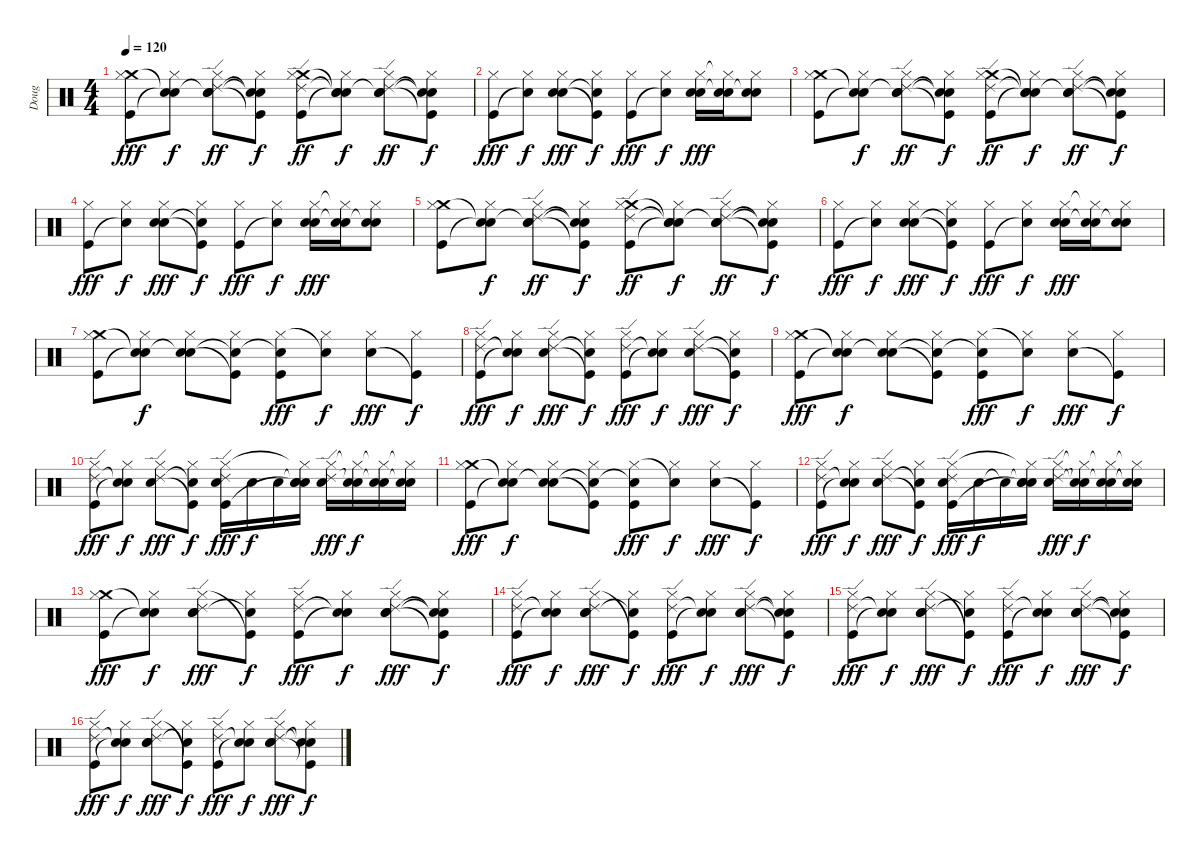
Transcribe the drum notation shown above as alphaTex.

\track ("Doug" "Doug") {instrument percussion}
\staff {score}
\articulation defaults
\ts (4 4)
\tempo 120
\clef neutral
\ks c
("Crash medium (hit)" "Hi-Hat (closed)" "Kick (hit)").8{dy fff} ("Snare (hit)"{t} "Hi-Hat (closed)" "Snare (hit)"{t}).8{dy f} ("Snare (hit)"{t} "Hi-Hat (closed)" "Snare (hit) 2" "Ride (edge) 2").8{dy ff} ("Snare (hit)"{t} "Hi-Hat (closed)" "Kick (hit)"{t} "Snare (hit)"{t}).8{dy f} ("Crash medium (hit)" "Hi-Hat (closed)" "Kick (hit)" "Ride (edge) 2").8{dy ff} ("Snare (hit)"{t} "Hi-Hat (closed)" "Snare (hit)"{t} "Snare (hit)"{t}).8{dy f} ("Snare (hit)"{t} "Hi-Hat (closed)" "Snare (hit) 2" "Ride (edge) 2").8{dy ff} ("Snare (hit)"{t} "Hi-Hat (closed)" "Kick (hit)"{t} "Snare (hit)"{t}).8{dy f} |
("Hi-Hat (closed)" "Kick (hit)").8{dy fff} ("Hi-Hat (closed)" "Snare (hit)"{t}).8{dy f} ("Hand Clap (hit)" "Hi-Hat (closed)" "Snare (hit) 2").8{dy fff} ("Snare (hit)"{t} "Hi-Hat (closed)" "Kick (hit)"{t}).8{dy f} ("Hi-Hat (closed)" "Kick (hit)").8{dy fff} ("Hi-Hat (closed)" "Snare (hit)"{t}).8{dy f} ("Hand Clap (hit)" "Hi-Hat (closed)" "Snare (hit) 2").16{dy fff} ("Snare (hit)"{t} "Hi-Hat (closed)"{t} "Snare (hit) 2").16 ("Snare (hit)"{t} "Hi-Hat (closed)" "Snare (hit) 2").8 |
("Crash medium (hit)" "Hi-Hat (closed)" "Kick (hit)").8 ("Snare (hit)"{t} "Hi-Hat (closed)" "Snare (hit)"{t}).8{dy f} ("Snare (hit)"{t} "Hi-Hat (closed)" "Snare (hit) 2" "Ride (edge) 2").8{dy ff} ("Snare (hit)"{t} "Hi-Hat (closed)" "Kick (hit)"{t} "Snare (hit)"{t}).8{dy f} ("Crash medium (hit)" "Hi-Hat (closed)" "Kick (hit)" "Ride (edge) 2").8{dy ff} ("Snare (hit)"{t} "Hi-Hat (closed)" "Snare (hit)"{t} "Snare (hit)"{t}).8{dy f} ("Snare (hit)"{t} "Hi-Hat (closed)" "Snare (hit) 2" "Ride (edge) 2").8{dy ff} ("Snare (hit)"{t} "Hi-Hat (closed)" "Kick (hit)"{t} "Snare (hit)"{t}).8{dy f} |
("Hi-Hat (closed)" "Kick (hit)").8{dy fff} ("Hi-Hat (closed)" "Snare (hit)"{t}).8{dy f} ("Hand Clap (hit)" "Hi-Hat (closed)" "Snare (hit) 2").8{dy fff} ("Snare (hit)"{t} "Hi-Hat (closed)" "Kick (hit)"{t}).8{dy f} ("Hi-Hat (closed)" "Kick (hit)").8{dy fff} ("Hi-Hat (closed)" "Snare (hit)"{t}).8{dy f} ("Hand Clap (hit)" "Hi-Hat (closed)" "Snare (hit) 2").16{dy fff} ("Snare (hit)"{t} "Hi-Hat (closed)"{t} "Snare (hit) 2").16 ("Snare (hit)"{t} "Hi-Hat (closed)" "Snare (hit) 2").8 |
("Crash medium (hit)" "Hi-Hat (closed)" "Kick (hit)").8 ("Snare (hit)"{t} "Hi-Hat (closed)" "Snare (hit)"{t}).8{dy f} ("Snare (hit)"{t} "Hi-Hat (closed)" "Snare (hit) 2" "Ride (edge) 2").8{dy ff} ("Snare (hit)"{t} "Hi-Hat (closed)" "Kick (hit)"{t} "Snare (hit)"{t}).8{dy f} ("Crash medium (hit)" "Hi-Hat (closed)" "Kick (hit)" "Ride (edge) 2").8{dy ff} ("Snare (hit)"{t} "Hi-Hat (closed)" "Snare (hit)"{t} "Snare (hit)"{t}).8{dy f} ("Snare (hit)"{t} "Hi-Hat (closed)" "Snare (hit) 2" "Ride (edge) 2").8{dy ff} ("Snare (hit)"{t} "Hi-Hat (closed)" "Kick (hit)"{t} "Snare (hit)"{t}).8{dy f} |
("Hi-Hat (closed)" "Kick (hit)").8{dy fff} ("Hi-Hat (closed)" "Snare (hit)"{t}).8{dy f} ("Hand Clap (hit)" "Hi-Hat (closed)" "Snare (hit) 2").8{dy fff} ("Snare (hit)"{t} "Hi-Hat (closed)" "Kick (hit)"{t}).8{dy f} ("Hi-Hat (closed)" "Kick (hit)").8{dy fff} ("Hi-Hat (closed)" "Snare (hit)"{t}).8{dy f} ("Hand Clap (hit)" "Hi-Hat (closed)" "Snare (hit) 2").16{dy fff} ("Snare (hit)"{t} "Hi-Hat (closed)"{t} "Snare (hit) 2").16 ("Snare (hit)"{t} "Hi-Hat (closed)" "Snare (hit) 2").8 |
("Crash medium (hit)" "Hi-Hat (closed)" "Kick (hit)").8 ("Snare (hit)"{t} "Hi-Hat (closed)" "Snare (hit)"{t}).8{dy f} ("Snare (hit)"{t} "Hi-Hat (closed)" "Snare (hit) 2").8 ("Snare (hit)"{t} "Hi-Hat (closed)" "Kick (hit)"{t}).8 ("Snare (hit)"{t} "Hi-Hat (closed)" "Kick (hit)").8{dy fff} ("Hi-Hat (closed)" "Snare (hit)"{t}).8{dy f} ("Hi-Hat (closed)" "Snare (hit) 2").8{dy fff} ("Hi-Hat (closed)" "Kick (hit)"{t}).8{dy f} |
("Ride (edge) 2" "Hi-Hat (closed)" "Kick (hit)").8{dy fff} ("Snare (hit)"{t} "Hi-Hat (closed)" "Snare (hit)"{t}).8{dy f} ("Ride (edge) 2" "Hi-Hat (closed)" "Snare (hit) 2").8{dy fff} ("Snare (hit)"{t} "Hi-Hat (closed)" "Kick (hit)"{t}).8{dy f} ("Ride (edge) 2" "Hi-Hat (closed)" "Kick (hit)").8{dy fff} ("Snare (hit)"{t} "Hi-Hat (closed)" "Snare (hit)"{t}).8{dy f} ("Ride (edge) 2" "Hi-Hat (closed)" "Snare (hit) 2").8{dy fff} ("Snare (hit)"{t} "Hi-Hat (closed)" "Kick (hit)"{t}).8{dy f} |
("Crash medium (hit)" "Hi-Hat (closed)" "Kick (hit)").8{dy fff} ("Snare (hit)"{t} "Hi-Hat (closed)" "Snare (hit)"{t}).8{dy f} ("Snare (hit)"{t} "Hi-Hat (closed)" "Snare (hit) 2").8 ("Snare (hit)"{t} "Hi-Hat (closed)" "Kick (hit)"{t}).8 ("Snare (hit)"{t} "Hi-Hat (closed)" "Kick (hit)").8{dy fff} ("Hi-Hat (closed)" "Snare (hit)"{t}).8{dy f} ("Hi-Hat (closed)" "Snare (hit) 2").8{dy fff} ("Hi-Hat (closed)" "Kick (hit)"{t}).8{dy f} |
("Ride (edge) 2" "Hi-Hat (closed)" "Kick (hit)").8{dy fff} ("Snare (hit)"{t} "Hi-Hat (closed)" "Snare (hit)"{t}).8{dy f} ("Ride (edge) 2" "Hi-Hat (closed)" "Snare (hit) 2").8{dy fff} ("Snare (hit)"{t} "Hi-Hat (closed)" "Kick (hit)"{t}).8{dy f} ("Ride (edge) 2" "Hi-Hat (closed)" "Snare (hit) 2" "Kick (hit)").16{dy fff} "Snare (hit) 2".16{dy f} "Snare (hit) 2".16 ("Snare (hit)"{t} "Hi-Hat (closed)"{t} "Snare (hit) 2" "Snare (hit)"{t}).16 ("Ride (edge) 2" "Hi-Hat (closed)" "Snare (hit) 2").16{dy fff} ("Snare (hit)"{t} "Hi-Hat (closed)"{t} "Snare (hit) 2").16{dy f} ("Snare (hit)"{t} "Hi-Hat (closed)"{t} "Snare (hit) 2").16 ("Snare (hit)"{t} "Hi-Hat (closed)"{t} "Snare (hit) 2").16 |
("Crash medium (hit)" "Hi-Hat (closed)" "Kick (hit)").8{dy fff} ("Snare (hit)"{t} "Hi-Hat (closed)" "Snare (hit)"{t}).8{dy f} ("Snare (hit)"{t} "Hi-Hat (closed)" "Snare (hit) 2").8 ("Snare (hit)"{t} "Hi-Hat (closed)" "Kick (hit)"{t}).8 ("Snare (hit)"{t} "Hi-Hat (closed)" "Kick (hit)").8{dy fff} ("Hi-Hat (closed)" "Snare (hit)"{t}).8{dy f} ("Hi-Hat (closed)" "Snare (hit) 2").8{dy fff} ("Hi-Hat (closed)" "Kick (hit)"{t}).8{dy f} |
("Ride (edge) 2" "Hi-Hat (closed)" "Kick (hit)").8{dy fff} ("Snare (hit)"{t} "Hi-Hat (closed)" "Snare (hit)"{t}).8{dy f} ("Ride (edge) 2" "Hi-Hat (closed)" "Snare (hit) 2").8{dy fff} ("Snare (hit)"{t} "Hi-Hat (closed)" "Kick (hit)"{t}).8{dy f} ("Ride (edge) 2" "Hi-Hat (closed)" "Snare (hit) 2" "Kick (hit)").16{dy fff} "Snare (hit) 2".16{dy f} "Snare (hit) 2"{t}.16 ("Snare (hit)"{t} "Hi-Hat (closed)"{t} "Snare (hit) 2" "Snare (hit)"{t}).16 ("Ride (edge) 2" "Hi-Hat (closed)" "Snare (hit) 2").16{dy fff} ("Snare (hit)"{t} "Hi-Hat (closed)"{t} "Snare (hit) 2"{t}).16{dy f} ("Snare (hit)"{t} "Hi-Hat (closed)"{t} "Snare (hit) 2").16 ("Snare (hit)"{t} "Hi-Hat (closed)"{t} "Snare (hit) 2"{t}).16 |
("Crash medium (hit)" "Hi-Hat (closed)" "Kick (hit)").8{dy fff} ("Snare (hit)"{t} "Hi-Hat (closed)" "Snare (hit)"{t}).8{dy f} ("Ride (edge) 2" "Hi-Hat (closed)" "Snare (hit) 2" "Hand Clap (hit)").8{dy fff} ("Hi-Hat (closed)" "Kick (hit)"{t} "Snare (hit)"{t}).8{dy f} ("Ride (edge) 2" "Hi-Hat (closed)" "Kick (hit)").8{dy fff} ("Snare (hit)"{t} "Hi-Hat (closed)" "Snare (hit)"{t}).8{dy f} ("Ride (edge) 2" "Hi-Hat (closed)" "Snare (hit) 2" "Hand Clap (hit)").8{dy fff} ("Snare (hit)"{t} "Hi-Hat (closed)" "Kick (hit)"{t} "Snare (hit)"{t}).8{dy f} |
("Ride (edge) 2" "Hi-Hat (closed)" "Kick (hit)").8{dy fff} ("Snare (hit)"{t} "Hi-Hat (closed)" "Snare (hit)"{t}).8{dy f} ("Ride (edge) 2" "Hi-Hat (closed)" "Snare (hit) 2" "Hand Clap (hit)").8{dy fff} ("Hi-Hat (closed)" "Kick (hit)"{t} "Snare (hit)"{t}).8{dy f} ("Ride (edge) 2" "Hi-Hat (closed)" "Kick (hit)").8{dy fff} ("Snare (hit)"{t} "Hi-Hat (closed)" "Snare (hit)"{t}).8{dy f} ("Ride (edge) 2" "Hi-Hat (closed)" "Snare (hit) 2" "Hand Clap (hit)").8{dy fff} ("Snare (hit)"{t} "Hi-Hat (closed)" "Kick (hit)"{t} "Snare (hit)"{t}).8{dy f} |
("Ride (edge) 2" "Hi-Hat (closed)" "Kick (hit)").8{dy fff} ("Snare (hit)"{t} "Hi-Hat (closed)" "Snare (hit)"{t}).8{dy f} ("Ride (edge) 2" "Hi-Hat (closed)" "Snare (hit) 2" "Hand Clap (hit)").8{dy fff} ("Hi-Hat (closed)" "Kick (hit)"{t} "Snare (hit)"{t}).8{dy f} ("Ride (edge) 2" "Hi-Hat (closed)" "Kick (hit)").8{dy fff} ("Snare (hit)"{t} "Hi-Hat (closed)" "Snare (hit)"{t}).8{dy f} ("Ride (edge) 2" "Hi-Hat (closed)" "Snare (hit) 2" "Hand Clap (hit)").8{dy fff} ("Snare (hit)"{t} "Hi-Hat (closed)" "Kick (hit)"{t} "Snare (hit)"{t}).8{dy f} |
("Ride (edge) 2" "Hi-Hat (closed)" "Kick (hit)").8{dy fff} ("Snare (hit)"{t} "Hi-Hat (closed)" "Snare (hit)"{t}).8{dy f} ("Ride (edge) 2" "Hi-Hat (closed)" "Snare (hit) 2" "Hand Clap (hit)").8{dy fff} ("Hi-Hat (closed)" "Kick (hit)"{t} "Snare (hit)"{t}).8{dy f} ("Ride (edge) 2" "Hi-Hat (closed)" "Kick (hit)").8{dy fff} ("Snare (hit)"{t} "Hi-Hat (closed)" "Snare (hit)"{t}).8{dy f} ("Ride (edge) 2" "Hi-Hat (closed)" "Snare (hit) 2" "Hand Clap (hit)").8{dy fff} ("Snare (hit)"{t} "Hi-Hat (closed)" "Kick (hit)"{t} "Snare (hit)"{t}).8{dy f}
